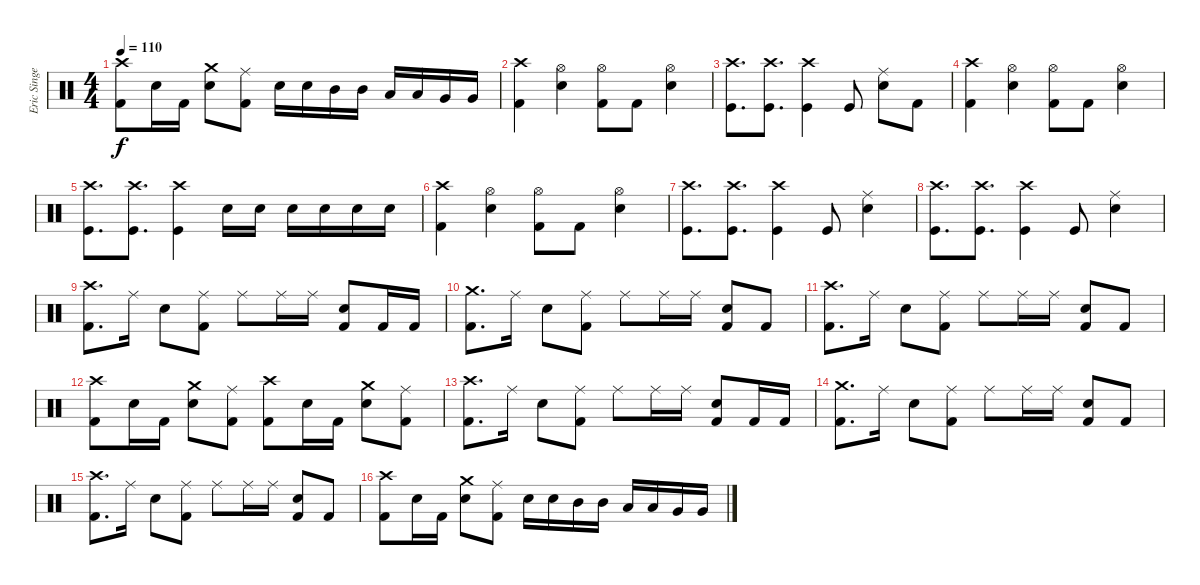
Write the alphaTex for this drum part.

\track ("Eric Singer" "Eric Singe") {instrument percussion}
\staff {score}
\articulation defaults
\ts (4 4)
\tempo 110
\clef neutral
\ks c
("Crash high (hit)" "Kick (hit) 2").8{dy f} "Snare (hit) 2".16 "Kick (hit) 2".16 ("Crash medium (hit)" "Snare (hit) 2").8 ("Ride (middle)" "Kick (hit) 2").8 "Snare (hit) 2".16 "Snare (hit) 2".16 "Mid Tom (hit)".16 "Mid Tom (hit)".16 "Low Tom (hit)".16 "Low Tom (hit)".16 "Very Low Tom (hit)".16 "Very Low Tom (hit)".16 |
("Crash high (hit)" "Kick (hit) 2").4 ("Hi-Hat (open)" "Snare (hit) 2").4 ("Hi-Hat (open)" "Kick (hit) 2").8 "Kick (hit) 2".8 ("Hi-Hat (open)" "Snare (hit) 2").4 |
("Crash high (hit)" "Kick (hit)").8{d} ("Crash high (hit)" "Kick (hit)").8{d} ("Crash high (hit)" "Kick (hit)").4 "Kick (hit)".8 ("Ride (middle)" "Snare (hit) 2").8 "Kick (hit) 2".8 |
("Crash high (hit)" "Kick (hit) 2").4 ("Hi-Hat (open)" "Snare (hit) 2").4 ("Hi-Hat (open)" "Kick (hit) 2").8 "Kick (hit) 2".8 ("Hi-Hat (open)" "Snare (hit) 2").4 |
("Crash high (hit)" "Kick (hit)").8{d} ("Crash high (hit)" "Kick (hit)").8{d} ("Crash high (hit)" "Kick (hit)").4 "Electric Snare (hit)".16 "Electric Snare (hit)".16 "Electric Snare (hit)".16 "Electric Snare (hit)".16 "Electric Snare (hit)".16 "Electric Snare (hit)".16 |
("Crash high (hit)" "Kick (hit) 2").4 ("Hi-Hat (open)" "Snare (hit) 2").4 ("Hi-Hat (open)" "Kick (hit) 2").8 "Kick (hit) 2".8 ("Hi-Hat (open)" "Snare (hit) 2").4 |
("Crash high (hit)" "Kick (hit)").8{d} ("Crash high (hit)" "Kick (hit)").8{d} ("Crash high (hit)" "Kick (hit)").4 "Kick (hit)".8 ("Ride (middle)" "Snare (hit) 2").4 |
("Crash high (hit)" "Kick (hit)").8{d} ("Crash high (hit)" "Kick (hit)").8{d} ("Crash high (hit)" "Kick (hit)").4 "Kick (hit)".8 ("Ride (middle)" "Snare (hit) 2").4 |
("Crash high (hit)" "Kick (hit) 2").8{d} "Ride (middle)".16 "Electric Snare (hit)".8 ("Ride (middle)" "Kick (hit) 2").8 "Ride (middle)".8 "Ride (middle)".16 "Ride (middle)".16 ("Electric Snare (hit)" "Kick (hit) 2").8 "Kick (hit) 2".16 "Kick (hit) 2".16 |
("Crash medium (hit)" "Kick (hit) 2").8{d} "Ride (middle)".16 "Electric Snare (hit)".8 ("Ride (middle)" "Kick (hit) 2").8 "Ride (middle)".8 "Ride (middle)".16 "Ride (middle)".16 ("Electric Snare (hit)" "Kick (hit) 2").8 "Kick (hit) 2".8 |
("Crash high (hit)" "Kick (hit) 2").8{d} "Ride (middle)".16 "Electric Snare (hit)".8 ("Ride (middle)" "Kick (hit) 2").8 "Ride (middle)".8 "Ride (middle)".16 "Ride (middle)".16 ("Electric Snare (hit)" "Kick (hit) 2").8 "Kick (hit) 2".8 |
("Crash high (hit)" "Kick (hit) 2").8 "Snare (hit) 2".16 "Kick (hit) 2".16 ("Crash medium (hit)" "Snare (hit) 2").8 ("Ride (middle)" "Kick (hit) 2").8 ("Crash high (hit)" "Kick (hit) 2").8 "Snare (hit) 2".16 "Kick (hit) 2".16 ("Crash medium (hit)" "Snare (hit) 2").8 ("Ride (middle)" "Kick (hit) 2").8 |
("Crash high (hit)" "Kick (hit) 2").8{d} "Ride (middle)".16 "Electric Snare (hit)".8 ("Ride (middle)" "Kick (hit) 2").8 "Ride (middle)".8 "Ride (middle)".16 "Ride (middle)".16 ("Electric Snare (hit)" "Kick (hit) 2").8 "Kick (hit) 2".16 "Kick (hit) 2".16 |
("Crash medium (hit)" "Kick (hit) 2").8{d} "Ride (middle)".16 "Electric Snare (hit)".8 ("Ride (middle)" "Kick (hit) 2").8 "Ride (middle)".8 "Ride (middle)".16 "Ride (middle)".16 ("Electric Snare (hit)" "Kick (hit) 2").8 "Kick (hit) 2".8 |
("Crash high (hit)" "Kick (hit) 2").8{d} "Ride (middle)".16 "Electric Snare (hit)".8 ("Ride (middle)" "Kick (hit) 2").8 "Ride (middle)".8 "Ride (middle)".16 "Ride (middle)".16 ("Electric Snare (hit)" "Kick (hit) 2").8 "Kick (hit) 2".8 |
("Crash high (hit)" "Kick (hit) 2").8 "Snare (hit) 2".16 "Kick (hit) 2".16 ("Crash medium (hit)" "Snare (hit) 2").8 ("Ride (middle)" "Kick (hit) 2").8 "Snare (hit) 2".16 "Snare (hit) 2".16 "Mid Tom (hit)".16 "Mid Tom (hit)".16 "Low Tom (hit)".16 "Low Tom (hit)".16 "Very Low Tom (hit)".16 "Very Low Tom (hit)".16
